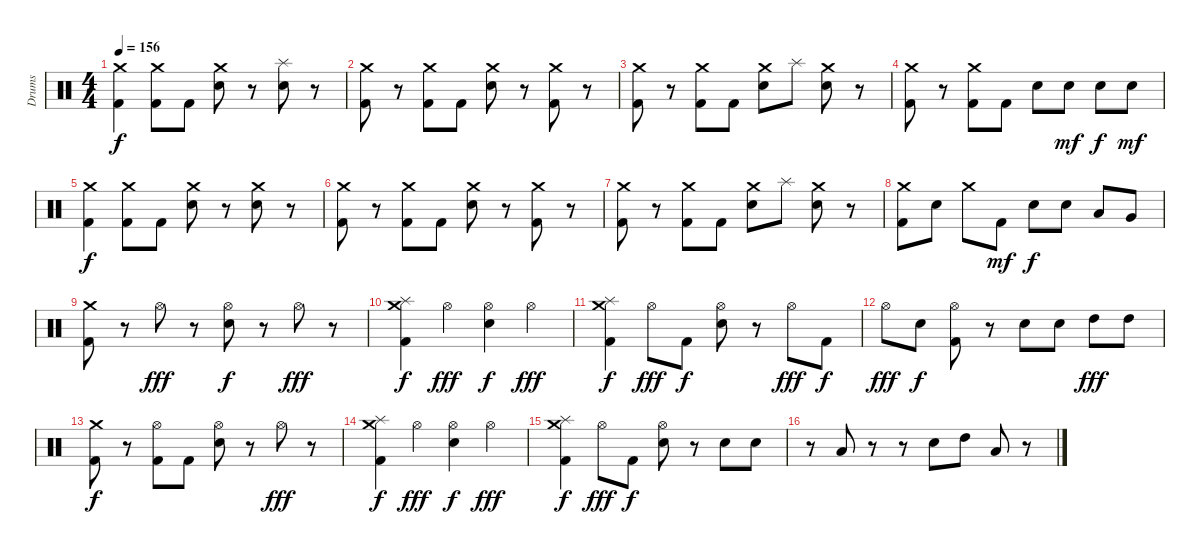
\track ("Drums" "Drums") {instrument percussion}
\staff {score}
\articulation defaults
\ts (4 4)
\tempo 156
\clef neutral
\ks c
("Crash medium (hit)" "Kick (hit) 2").4{dy f} ("Crash medium (hit)" "Kick (hit) 2").8 "Kick (hit) 2".8 ("Crash medium (hit)" "Electric Snare (hit)").8 r.8 ("Splash (hit)" "Electric Snare (hit)").8 r.8 |
("Crash medium (hit)" "Kick (hit) 2").8 r.8 ("Crash medium (hit)" "Kick (hit) 2").8 "Kick (hit) 2".8 ("Crash medium (hit)" "Electric Snare (hit)").8 r.8 ("Crash medium (hit)" "Kick (hit) 2").8 r.8 |
("Crash medium (hit)" "Kick (hit) 2").8 r.8 ("Crash medium (hit)" "Kick (hit) 2").8 "Kick (hit) 2".8 ("Crash medium (hit)" "Electric Snare (hit)").8 "Splash (hit)".8 ("Crash medium (hit)" "Electric Snare (hit)").8 r.8 |
("Crash medium (hit)" "Kick (hit) 2").8 r.8 ("Crash medium (hit)" "Kick (hit) 2").8 "Kick (hit) 2".8 "Electric Snare (hit)".8 "Electric Snare (hit)".8{dy mf} "Electric Snare (hit)".8{dy f} "Electric Snare (hit)".8{dy mf} |
("Crash medium (hit)" "Kick (hit) 2").4{dy f} ("Crash medium (hit)" "Kick (hit) 2").8 "Kick (hit) 2".8 ("Crash medium (hit)" "Electric Snare (hit)").8 r.8 ("Crash medium (hit)" "Electric Snare (hit)").8 r.8 |
("Crash medium (hit)" "Kick (hit) 2").8 r.8 ("Crash medium (hit)" "Kick (hit) 2").8 "Kick (hit) 2".8 ("Crash medium (hit)" "Electric Snare (hit)").8 r.8 ("Crash medium (hit)" "Kick (hit) 2").8 r.8 |
("Crash medium (hit)" "Kick (hit) 2").8 r.8 ("Crash medium (hit)" "Kick (hit) 2").8 "Kick (hit) 2".8 ("Crash medium (hit)" "Electric Snare (hit)").8 "Splash (hit)".8 ("Crash medium (hit)" "Electric Snare (hit)").8 r.8 |
("Crash medium (hit)" "Kick (hit) 2").8 "Electric Snare (hit)".8 "Crash medium (hit)".8 "Kick (hit) 2".8{dy mf} "Electric Snare (hit)".8{dy f} "Electric Snare (hit)".8 "Low Tom (hit)".8 "Very Low Tom (hit)".8 |
("Crash medium (hit)" "Kick (hit) 2").8 r.8 "Hi-Hat (open)".8{dy fff} r.8 ("Hi-Hat (open)" "Electric Snare (hit)").8{dy f} r.8 "Hi-Hat (open)".8{dy fff} r.8 |
("Crash medium (hit)" "Splash (hit)" "Kick (hit) 2").4{dy f} "Hi-Hat (open)".4{dy fff} ("Hi-Hat (open)" "Electric Snare (hit)").4{dy f} "Hi-Hat (open)".4{dy fff} |
("Crash medium (hit)" "Splash (hit)" "Kick (hit) 2").4{dy f} "Hi-Hat (open)".8{dy fff} "Kick (hit) 2".8{dy f} ("Hi-Hat (open)" "Electric Snare (hit)").8 r.8 "Hi-Hat (open)".8{dy fff} "Kick (hit) 2".8{dy f} |
"Hi-Hat (open)".8{dy fff} "Electric Snare (hit)".8{dy f} ("Hi-Hat (open)" "Kick (hit) 2").8 r.8 "Electric Snare (hit)".8 "Electric Snare (hit)".8 "High Tom (hit)".8{dy fff} "High Tom (hit)".8 |
("Crash medium (hit)" "Kick (hit) 2").8{dy f} r.8 ("Hi-Hat (open)" "Kick (hit) 2").8 "Kick (hit) 2".8 ("Hi-Hat (open)" "Electric Snare (hit)").8 r.8 "Hi-Hat (open)".8{dy fff} r.8 |
("Crash medium (hit)" "Splash (hit)" "Kick (hit) 2").4{dy f} "Hi-Hat (open)".4{dy fff} ("Hi-Hat (open)" "Electric Snare (hit)").4{dy f} "Hi-Hat (open)".4{dy fff} |
("Crash medium (hit)" "Splash (hit)" "Kick (hit) 2").4{dy f} "Hi-Hat (open)".8{dy fff} "Kick (hit) 2".8{dy f} ("Hi-Hat (open)" "Electric Snare (hit)").8 r.8 "Electric Snare (hit)".8 "Electric Snare (hit)".8 |
r.8 "Low Tom (hit)".8 r.8 r.8 "Electric Snare (hit)".8 "High Tom (hit)".8 "Low Tom (hit)".8 r.8
